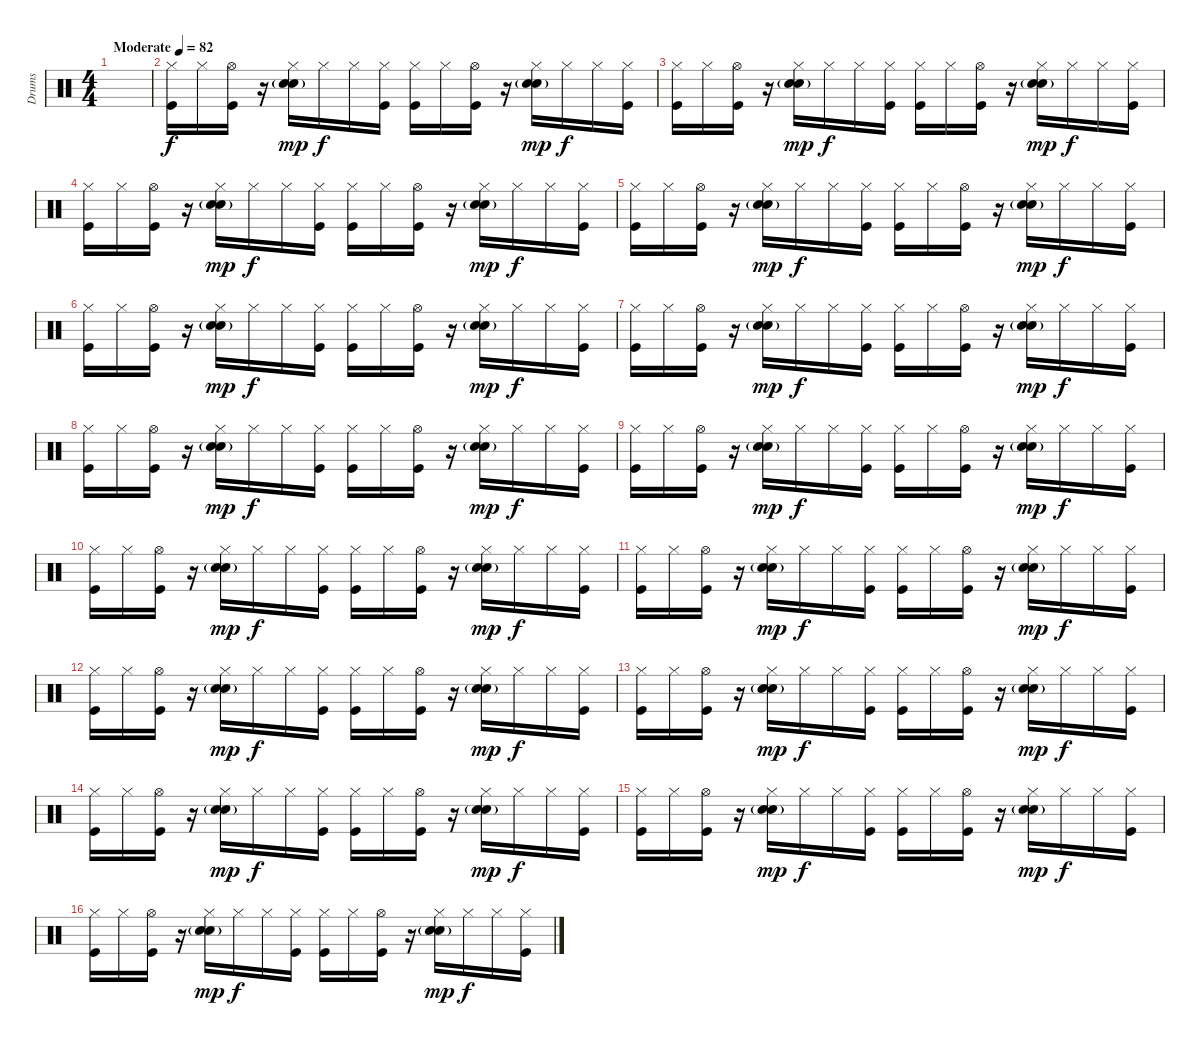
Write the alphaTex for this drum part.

\track ("Drums" "Drums") {instrument percussion}
\staff {score}
\articulation defaults
\ts (4 4)
\tempo (82 "Moderate")
\clef neutral
\ks c
|
("Hi-Hat (closed)" "Kick (hit)").16 "Hi-Hat (closed)".16 ("Hi-Hat (open)" "Kick (hit)").16 r.16 ("Hi-Hat (closed)" "Hand Clap (hit)" "Electric Snare (hit)"{g}).16{dy mp} "Hi-Hat (closed)".16{dy f} "Hi-Hat (closed)".16 ("Hi-Hat (closed)" "Kick (hit)").16 ("Hi-Hat (closed)" "Kick (hit)").16 "Hi-Hat (closed)".16 ("Hi-Hat (open)" "Kick (hit)").16 r.16 ("Hi-Hat (closed)" "Hand Clap (hit)" "Electric Snare (hit)"{g}).16{dy mp} "Hi-Hat (closed)".16{dy f} "Hi-Hat (closed)".16 ("Hi-Hat (closed)" "Kick (hit)").16 |
("Hi-Hat (closed)" "Kick (hit)").16 "Hi-Hat (closed)".16 ("Hi-Hat (open)" "Kick (hit)").16 r.16 ("Hi-Hat (closed)" "Hand Clap (hit)" "Electric Snare (hit)"{g}).16{dy mp} "Hi-Hat (closed)".16{dy f} "Hi-Hat (closed)".16 ("Hi-Hat (closed)" "Kick (hit)").16 ("Hi-Hat (closed)" "Kick (hit)").16 "Hi-Hat (closed)".16 ("Hi-Hat (open)" "Kick (hit)").16 r.16 ("Hi-Hat (closed)" "Hand Clap (hit)" "Electric Snare (hit)"{g}).16{dy mp} "Hi-Hat (closed)".16{dy f} "Hi-Hat (closed)".16 ("Hi-Hat (closed)" "Kick (hit)").16 |
("Hi-Hat (closed)" "Kick (hit)").16 "Hi-Hat (closed)".16 ("Hi-Hat (open)" "Kick (hit)").16 r.16 ("Hi-Hat (closed)" "Hand Clap (hit)" "Electric Snare (hit)"{g}).16{dy mp} "Hi-Hat (closed)".16{dy f} "Hi-Hat (closed)".16 ("Hi-Hat (closed)" "Kick (hit)").16 ("Hi-Hat (closed)" "Kick (hit)").16 "Hi-Hat (closed)".16 ("Hi-Hat (open)" "Kick (hit)").16 r.16 ("Hi-Hat (closed)" "Hand Clap (hit)" "Electric Snare (hit)"{g}).16{dy mp} "Hi-Hat (closed)".16{dy f} "Hi-Hat (closed)".16 ("Hi-Hat (closed)" "Kick (hit)").16 |
("Hi-Hat (closed)" "Kick (hit)").16 "Hi-Hat (closed)".16 ("Hi-Hat (open)" "Kick (hit)").16 r.16 ("Hi-Hat (closed)" "Hand Clap (hit)" "Electric Snare (hit)"{g}).16{dy mp} "Hi-Hat (closed)".16{dy f} "Hi-Hat (closed)".16 ("Hi-Hat (closed)" "Kick (hit)").16 ("Hi-Hat (closed)" "Kick (hit)").16 "Hi-Hat (closed)".16 ("Hi-Hat (open)" "Kick (hit)").16 r.16 ("Hi-Hat (closed)" "Hand Clap (hit)" "Electric Snare (hit)"{g}).16{dy mp} "Hi-Hat (closed)".16{dy f} "Hi-Hat (closed)".16 ("Hi-Hat (closed)" "Kick (hit)").16 |
("Hi-Hat (closed)" "Kick (hit)").16 "Hi-Hat (closed)".16 ("Hi-Hat (open)" "Kick (hit)").16 r.16 ("Hi-Hat (closed)" "Hand Clap (hit)" "Electric Snare (hit)"{g}).16{dy mp} "Hi-Hat (closed)".16{dy f} "Hi-Hat (closed)".16 ("Hi-Hat (closed)" "Kick (hit)").16 ("Hi-Hat (closed)" "Kick (hit)").16 "Hi-Hat (closed)".16 ("Hi-Hat (open)" "Kick (hit)").16 r.16 ("Hi-Hat (closed)" "Hand Clap (hit)" "Electric Snare (hit)"{g}).16{dy mp} "Hi-Hat (closed)".16{dy f} "Hi-Hat (closed)".16 ("Hi-Hat (closed)" "Kick (hit)").16 |
("Hi-Hat (closed)" "Kick (hit)").16 "Hi-Hat (closed)".16 ("Hi-Hat (open)" "Kick (hit)").16 r.16 ("Hi-Hat (closed)" "Hand Clap (hit)" "Electric Snare (hit)"{g}).16{dy mp} "Hi-Hat (closed)".16{dy f} "Hi-Hat (closed)".16 ("Hi-Hat (closed)" "Kick (hit)").16 ("Hi-Hat (closed)" "Kick (hit)").16 "Hi-Hat (closed)".16 ("Hi-Hat (open)" "Kick (hit)").16 r.16 ("Hi-Hat (closed)" "Hand Clap (hit)" "Electric Snare (hit)"{g}).16{dy mp} "Hi-Hat (closed)".16{dy f} "Hi-Hat (closed)".16 ("Hi-Hat (closed)" "Kick (hit)").16 |
("Hi-Hat (closed)" "Kick (hit)").16 "Hi-Hat (closed)".16 ("Hi-Hat (open)" "Kick (hit)").16 r.16 ("Hi-Hat (closed)" "Hand Clap (hit)" "Electric Snare (hit)"{g}).16{dy mp} "Hi-Hat (closed)".16{dy f} "Hi-Hat (closed)".16 ("Hi-Hat (closed)" "Kick (hit)").16 ("Hi-Hat (closed)" "Kick (hit)").16 "Hi-Hat (closed)".16 ("Hi-Hat (open)" "Kick (hit)").16 r.16 ("Hi-Hat (closed)" "Hand Clap (hit)" "Electric Snare (hit)"{g}).16{dy mp} "Hi-Hat (closed)".16{dy f} "Hi-Hat (closed)".16 ("Hi-Hat (closed)" "Kick (hit)").16 |
("Hi-Hat (closed)" "Kick (hit)").16 "Hi-Hat (closed)".16 ("Hi-Hat (open)" "Kick (hit)").16 r.16 ("Hi-Hat (closed)" "Hand Clap (hit)" "Electric Snare (hit)"{g}).16{dy mp} "Hi-Hat (closed)".16{dy f} "Hi-Hat (closed)".16 ("Hi-Hat (closed)" "Kick (hit)").16 ("Hi-Hat (closed)" "Kick (hit)").16 "Hi-Hat (closed)".16 ("Hi-Hat (open)" "Kick (hit)").16 r.16 ("Hi-Hat (closed)" "Hand Clap (hit)" "Electric Snare (hit)"{g}).16{dy mp} "Hi-Hat (closed)".16{dy f} "Hi-Hat (closed)".16 ("Hi-Hat (closed)" "Kick (hit)").16 |
("Hi-Hat (closed)" "Kick (hit)").16 "Hi-Hat (closed)".16 ("Hi-Hat (open)" "Kick (hit)").16 r.16 ("Hi-Hat (closed)" "Hand Clap (hit)" "Electric Snare (hit)"{g}).16{dy mp} "Hi-Hat (closed)".16{dy f} "Hi-Hat (closed)".16 ("Hi-Hat (closed)" "Kick (hit)").16 ("Hi-Hat (closed)" "Kick (hit)").16 "Hi-Hat (closed)".16 ("Hi-Hat (open)" "Kick (hit)").16 r.16 ("Hi-Hat (closed)" "Hand Clap (hit)" "Electric Snare (hit)"{g}).16{dy mp} "Hi-Hat (closed)".16{dy f} "Hi-Hat (closed)".16 ("Hi-Hat (closed)" "Kick (hit)").16 |
("Hi-Hat (closed)" "Kick (hit)").16 "Hi-Hat (closed)".16 ("Hi-Hat (open)" "Kick (hit)").16 r.16 ("Hi-Hat (closed)" "Hand Clap (hit)" "Electric Snare (hit)"{g}).16{dy mp} "Hi-Hat (closed)".16{dy f} "Hi-Hat (closed)".16 ("Hi-Hat (closed)" "Kick (hit)").16 ("Hi-Hat (closed)" "Kick (hit)").16 "Hi-Hat (closed)".16 ("Hi-Hat (open)" "Kick (hit)").16 r.16 ("Hi-Hat (closed)" "Hand Clap (hit)" "Electric Snare (hit)"{g}).16{dy mp} "Hi-Hat (closed)".16{dy f} "Hi-Hat (closed)".16 ("Hi-Hat (closed)" "Kick (hit)").16 |
("Hi-Hat (closed)" "Kick (hit)").16 "Hi-Hat (closed)".16 ("Hi-Hat (open)" "Kick (hit)").16 r.16 ("Hi-Hat (closed)" "Hand Clap (hit)" "Electric Snare (hit)"{g}).16{dy mp} "Hi-Hat (closed)".16{dy f} "Hi-Hat (closed)".16 ("Hi-Hat (closed)" "Kick (hit)").16 ("Hi-Hat (closed)" "Kick (hit)").16 "Hi-Hat (closed)".16 ("Hi-Hat (open)" "Kick (hit)").16 r.16 ("Hi-Hat (closed)" "Hand Clap (hit)" "Electric Snare (hit)"{g}).16{dy mp} "Hi-Hat (closed)".16{dy f} "Hi-Hat (closed)".16 ("Hi-Hat (closed)" "Kick (hit)").16 |
("Hi-Hat (closed)" "Kick (hit)").16 "Hi-Hat (closed)".16 ("Hi-Hat (open)" "Kick (hit)").16 r.16 ("Hi-Hat (closed)" "Hand Clap (hit)" "Electric Snare (hit)"{g}).16{dy mp} "Hi-Hat (closed)".16{dy f} "Hi-Hat (closed)".16 ("Hi-Hat (closed)" "Kick (hit)").16 ("Hi-Hat (closed)" "Kick (hit)").16 "Hi-Hat (closed)".16 ("Hi-Hat (open)" "Kick (hit)").16 r.16 ("Hi-Hat (closed)" "Hand Clap (hit)" "Electric Snare (hit)"{g}).16{dy mp} "Hi-Hat (closed)".16{dy f} "Hi-Hat (closed)".16 ("Hi-Hat (closed)" "Kick (hit)").16 |
("Hi-Hat (closed)" "Kick (hit)").16 "Hi-Hat (closed)".16 ("Hi-Hat (open)" "Kick (hit)").16 r.16 ("Hi-Hat (closed)" "Hand Clap (hit)" "Electric Snare (hit)"{g}).16{dy mp} "Hi-Hat (closed)".16{dy f} "Hi-Hat (closed)".16 ("Hi-Hat (closed)" "Kick (hit)").16 ("Hi-Hat (closed)" "Kick (hit)").16 "Hi-Hat (closed)".16 ("Hi-Hat (open)" "Kick (hit)").16 r.16 ("Hi-Hat (closed)" "Hand Clap (hit)" "Electric Snare (hit)"{g}).16{dy mp} "Hi-Hat (closed)".16{dy f} "Hi-Hat (closed)".16 ("Hi-Hat (closed)" "Kick (hit)").16 |
("Hi-Hat (closed)" "Kick (hit)").16 "Hi-Hat (closed)".16 ("Hi-Hat (open)" "Kick (hit)").16 r.16 ("Hi-Hat (closed)" "Hand Clap (hit)" "Electric Snare (hit)"{g}).16{dy mp} "Hi-Hat (closed)".16{dy f} "Hi-Hat (closed)".16 ("Hi-Hat (closed)" "Kick (hit)").16 ("Hi-Hat (closed)" "Kick (hit)").16 "Hi-Hat (closed)".16 ("Hi-Hat (open)" "Kick (hit)").16 r.16 ("Hi-Hat (closed)" "Hand Clap (hit)" "Electric Snare (hit)"{g}).16{dy mp} "Hi-Hat (closed)".16{dy f} "Hi-Hat (closed)".16 ("Hi-Hat (closed)" "Kick (hit)").16 |
("Hi-Hat (closed)" "Kick (hit)").16 "Hi-Hat (closed)".16 ("Hi-Hat (open)" "Kick (hit)").16 r.16 ("Hi-Hat (closed)" "Hand Clap (hit)" "Electric Snare (hit)"{g}).16{dy mp} "Hi-Hat (closed)".16{dy f} "Hi-Hat (closed)".16 ("Hi-Hat (closed)" "Kick (hit)").16 ("Hi-Hat (closed)" "Kick (hit)").16 "Hi-Hat (closed)".16 ("Hi-Hat (open)" "Kick (hit)").16 r.16 ("Hi-Hat (closed)" "Hand Clap (hit)" "Electric Snare (hit)"{g}).16{dy mp} "Hi-Hat (closed)".16{dy f} "Hi-Hat (closed)".16 ("Hi-Hat (closed)" "Kick (hit)").16
